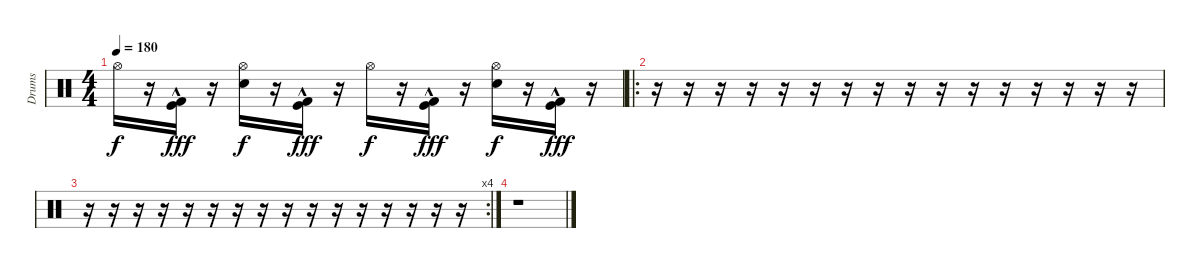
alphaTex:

\track ("Drums" "Drums") {instrument percussion}
\staff {score}
\articulation defaults
\ts (4 4)
\tempo 180
\clef neutral
\ks c "Hi-Hat (open)".16{dy f}
r.16 ("Kick (hit)"{hac} "Kick (hit) 2"{hac}).16{dy fff} r.16 ("Hi-Hat (open)" "Snare (hit) 2").16{dy f} r.16 ("Kick (hit)"{hac} "Kick (hit) 2"{hac}).16{dy fff} r.16 "Hi-Hat (open)".16{dy f} r.16 ("Kick (hit)"{hac} "Kick (hit) 2"{hac}).16{dy fff} r.16 ("Hi-Hat (open)" "Snare (hit) 2").16{dy f} r.16 ("Kick (hit)"{hac} "Kick (hit) 2"{hac}).16{dy fff} r.16 |
\ro
r.16 r.16 r.16 r.16 r.16 r.16 r.16 r.16 r.16 r.16 r.16 r.16 r.16 r.16 r.16 r.16 |
\rc 4
r.16 r.16 r.16 r.16 r.16 r.16 r.16 r.16 r.16 r.16 r.16 r.16 r.16 r.16 r.16 r.16 |
r.1
